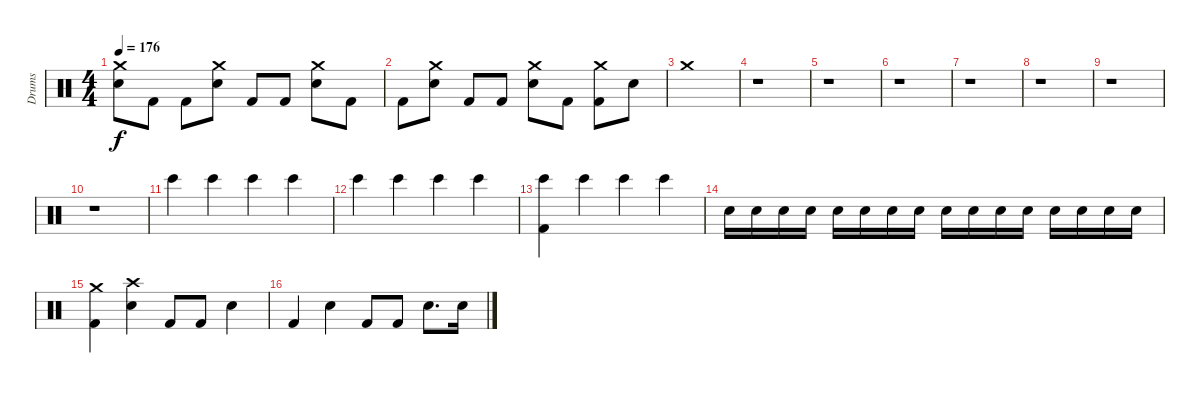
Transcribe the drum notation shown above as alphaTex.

\track ("Drums" "Drums") {instrument percussion}
\staff {score}
\articulation defaults
\ts (4 4)
\tempo 176
\clef neutral
\ks c
("Snare (hit) 2" "Crash medium (hit)").8{dy f} "Kick (hit) 2".8 "Kick (hit) 2".8 ("Snare (hit) 2" "Crash medium (hit)").8 "Kick (hit) 2".8 "Kick (hit) 2".8 ("Snare (hit) 2" "Crash medium (hit)").8 "Kick (hit) 2".8 |
"Kick (hit) 2".8 ("Snare (hit) 2" "Crash medium (hit)").8 "Kick (hit) 2".8 "Kick (hit) 2".8 ("Snare (hit) 2" "Crash medium (hit)").8 "Kick (hit) 2".8 ("Kick (hit) 2" "Crash medium (hit)").8 "Snare (hit) 2".8 |
"Crash medium (hit)".1 |
r.1 |
r.1 |
r.1 |
r.1 |
r.1 |
r.1 |
r.1 |
"Bongo High (hit)".4 "Bongo High (hit)".4 "Bongo High (hit)".4 "Bongo High (hit)".4 |
"Bongo High (hit)".4 "Bongo High (hit)".4 "Bongo High (hit)".4 "Bongo High (hit)".4 |
("Bongo High (hit)" "Kick (hit) 2").4 "Bongo High (hit)".4 "Bongo High (hit)".4 "Bongo High (hit)".4 |
"Snare (hit) 2".16 "Snare (hit) 2".16 "Snare (hit) 2".16 "Snare (hit) 2".16 "Snare (hit) 2".16 "Snare (hit) 2".16 "Snare (hit) 2".16 "Snare (hit) 2".16 "Snare (hit) 2".16 "Snare (hit) 2".16 "Snare (hit) 2".16 "Snare (hit) 2".16 "Snare (hit) 2".16 "Snare (hit) 2".16 "Snare (hit) 2".16 "Snare (hit) 2".16 |
("Kick (hit) 2" "Crash medium (hit)").4 ("Snare (hit) 2" "Crash high (hit)").4 "Kick (hit) 2".8 "Kick (hit) 2".8 "Snare (hit) 2".4 |
"Kick (hit) 2".4 "Snare (hit) 2".4 "Kick (hit) 2".8 "Kick (hit) 2".8 "Snare (hit) 2".8{d} "Snare (hit) 2".16
